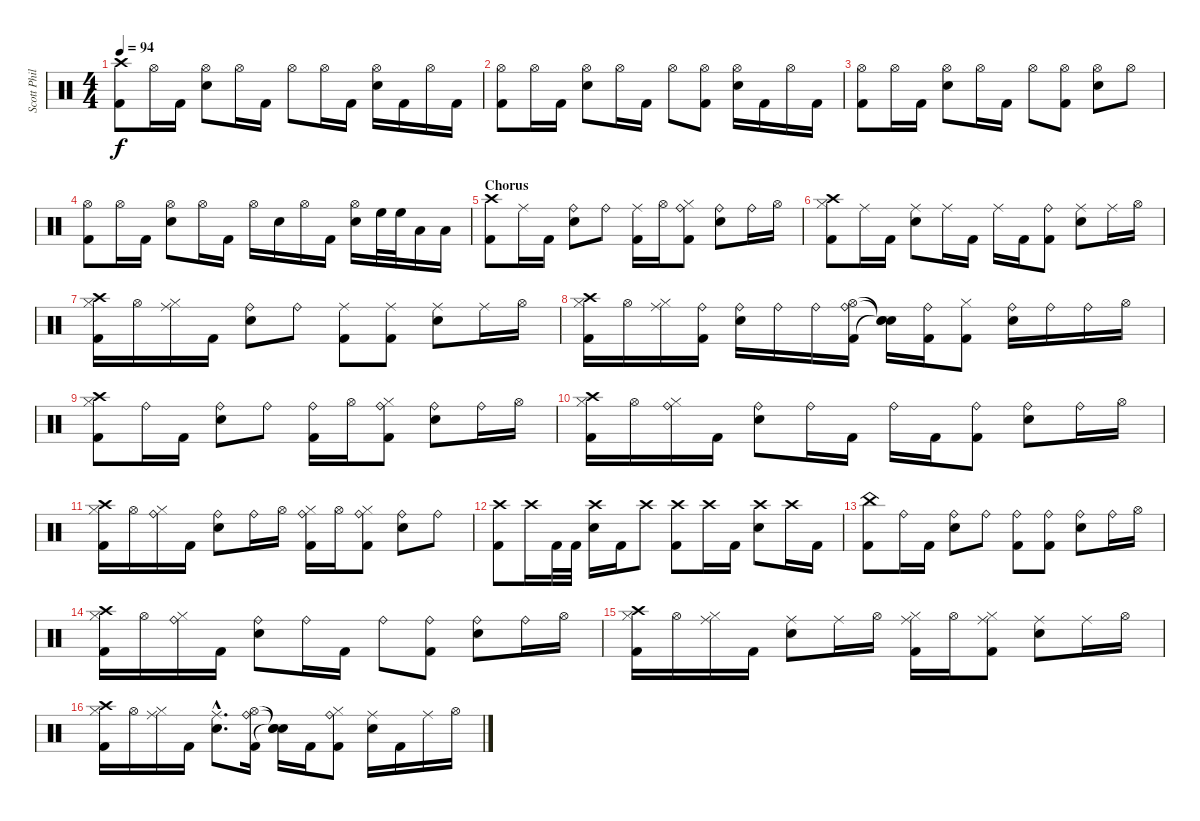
\track ("Scott Phillips" "Scott Phil") {instrument percussion}
\staff {score}
\articulation defaults
\ts (4 4)
\tempo 94
\clef neutral
\ks c
("Crash high (hit)" "Kick (hit) 2").8{dy f} "Hi-Hat (open)".16 "Kick (hit) 2".16 ("Hi-Hat (open)" "Electric Snare (hit)").8 "Hi-Hat (open)".16 "Kick (hit) 2".16 "Hi-Hat (open)".8 "Hi-Hat (open)".16 "Kick (hit) 2".16 ("Hi-Hat (open)" "Electric Snare (hit)").16 "Kick (hit) 2".16 "Hi-Hat (open)".16 "Kick (hit) 2".16 |
("Hi-Hat (open)" "Kick (hit) 2").8 "Hi-Hat (open)".16 "Kick (hit) 2".16 ("Hi-Hat (open)" "Electric Snare (hit)").8 "Hi-Hat (open)".16 "Kick (hit) 2".16 "Hi-Hat (open)".8 ("Hi-Hat (open)" "Kick (hit) 2").8 ("Hi-Hat (open)" "Electric Snare (hit)").16 "Kick (hit) 2".16 "Hi-Hat (open)".16 "Kick (hit) 2".16 |
("Hi-Hat (open)" "Kick (hit) 2").8 "Hi-Hat (open)".16 "Kick (hit) 2".16 ("Hi-Hat (open)" "Electric Snare (hit)").8 "Hi-Hat (open)".16 "Kick (hit) 2".16 "Hi-Hat (open)".8 ("Hi-Hat (open)" "Kick (hit) 2").8 ("Hi-Hat (open)" "Electric Snare (hit)").8 "Hi-Hat (open)".8 |
("Hi-Hat (open)" "Kick (hit) 2").8 "Hi-Hat (open)".16 "Kick (hit) 2".16 ("Hi-Hat (open)" "Electric Snare (hit)").8 "Hi-Hat (open)".16 "Kick (hit) 2".16 "Hi-Hat (open)".16 "Electric Snare (hit)".16 "Hi-Hat (open)".16 "Kick (hit) 2".16 ("Hi-Hat (open)" "Electric Snare (hit)").16 "High Floor Tom (hit)".32 "High Floor Tom (hit)".32 "Low Tom (hit)".16 "Low Floor Tom (hit)".16 |
\section ("" "Chorus")
("Crash high (hit)" "Kick (hit) 2").8 "Ride (middle)".16 "Kick (hit) 2".16 ("Ride (bell)" "Electric Snare (hit)").8 "Ride (bell)".8 ("Ride (middle)" "Kick (hit) 2").16 "Hi-Hat (open)".16 ("Ride (bell)" "Hi-Hat (closed)" "Kick (hit) 2").8 ("Ride (bell)" "Electric Snare (hit)").8 "Ride (bell)".16 "Hi-Hat (open)".16 |
("Crash high (hit)" "Hi-Hat (closed)" "Kick (hit) 2").8 "Ride (middle)".16 "Kick (hit) 2".16 ("Ride (middle)" "Electric Snare (hit)").8 "Ride (middle)".16 "Kick (hit) 2".16 "Ride (middle)".16 "Kick (hit) 2".16 ("Ride (bell)" "Kick (hit) 2").8 ("Ride (middle)" "Electric Snare (hit)").8 "Ride (middle)".16 "Hi-Hat (open)".16 |
("Crash high (hit)" "Hi-Hat (closed)" "Kick (hit) 2").16 "Hi-Hat (open)".16 ("Ride (middle)" "Hi-Hat (closed)").16 "Kick (hit) 2".16 ("Ride (bell)" "Electric Snare (hit)").8 "Ride (bell)".8 ("Ride (middle)" "Kick (hit) 2").8 ("Ride (middle)" "Kick (hit) 2").8 ("Ride (middle)" "Electric Snare (hit)").8 "Ride (middle)".16 "Hi-Hat (open)".16 |
("Crash high (hit)" "Hi-Hat (closed)" "Kick (hit) 2").16 "Hi-Hat (open)".16 ("Ride (middle)" "Hi-Hat (closed)").16 ("Ride (bell)" "Kick (hit) 2").16 ("Ride (bell)" "Electric Snare (hit)").16 "Ride (bell)".16 "Ride (bell)".16 ("Ride (bell)" "Hi-Hat (open)" "Kick (hit) 2").16 ("Snare (hit)"{t} "Snare (hit)"{t} "Snare (hit)"{t}).16 ("Ride (bell)" "Kick (hit) 2").16 ("Hi-Hat (closed)" "Kick (hit) 2").8 ("Ride (bell)" "Electric Snare (hit)").16 "Ride (bell)".16 "Ride (bell)".16 "Hi-Hat (open)".16 |
("Crash high (hit)" "Hi-Hat (closed)" "Kick (hit) 2").8 "Ride (bell)".16 "Kick (hit) 2".16 ("Ride (bell)" "Electric Snare (hit)").8 "Ride (bell)".8 ("Ride (bell)" "Kick (hit) 2").16 "Hi-Hat (open)".16 ("Ride (bell)" "Hi-Hat (closed)" "Kick (hit) 2").8 ("Ride (bell)" "Electric Snare (hit)").8 "Ride (bell)".16 "Hi-Hat (open)".16 |
("Crash high (hit)" "Hi-Hat (closed)" "Kick (hit) 2").16 "Hi-Hat (open)".16 ("Ride (bell)" "Hi-Hat (closed)").16 "Kick (hit) 2".16 ("Ride (bell)" "Electric Snare (hit)").8 "Ride (bell)".16 "Kick (hit) 2".16 "Ride (bell)".16 "Kick (hit) 2".16 ("Ride (bell)" "Kick (hit) 2").8 ("Ride (bell)" "Electric Snare (hit)").8 "Ride (bell)".16 "Hi-Hat (open)".16 |
("Crash high (hit)" "Hi-Hat (closed)" "Kick (hit) 2").16 "Hi-Hat (open)".16 ("Ride (bell)" "Hi-Hat (closed)").16 "Kick (hit) 2".16 ("Ride (bell)" "Electric Snare (hit)").8 "Ride (bell)".16 "Hi-Hat (open)".16 ("Ride (bell)" "Hi-Hat (closed)" "Kick (hit) 2").16 "Hi-Hat (open)".16 ("Ride (bell)" "Hi-Hat (closed)" "Kick (hit) 2").8 ("Ride (bell)" "Electric Snare (hit)").8 "Ride (bell)".8 |
("Crash high (hit)" "Kick (hit) 2").8 "Crash high (hit)".16 "Kick (hit) 2".32 "Kick (hit) 2".32 ("Crash high (hit)" "Electric Snare (hit)").16 "Kick (hit) 2".16 "Crash high (hit)".8 ("Crash high (hit)" "Kick (hit) 2").8 "Crash high (hit)".16 "Kick (hit) 2".16 ("Crash high (hit)" "Electric Snare (hit)").8 "Crash high (hit)".16 "Kick (hit) 2".16 |
("China (hit)" "Kick (hit) 2").8 "Ride (bell)".16 "Kick (hit) 2".16 ("Ride (bell)" "Electric Snare (hit)").8 "Ride (bell)".8 ("Ride (bell)" "Kick (hit) 2").8 ("Ride (bell)" "Kick (hit) 2").8 ("Ride (bell)" "Electric Snare (hit)").8 "Ride (bell)".16 "Hi-Hat (open)".16 |
("Crash high (hit)" "Hi-Hat (closed)" "Kick (hit) 2").16 "Hi-Hat (open)".16 ("Ride (bell)" "Hi-Hat (closed)").16 "Kick (hit) 2".16 ("Ride (bell)" "Electric Snare (hit)").8 "Ride (bell)".16 "Kick (hit) 2".16 "Ride (bell)".8 ("Ride (bell)" "Kick (hit) 2").8 ("Ride (bell)" "Electric Snare (hit)").8 "Ride (bell)".16 "Hi-Hat (open)".16 |
("Crash high (hit)" "Hi-Hat (closed)" "Kick (hit) 2").16 "Hi-Hat (open)".16 ("Ride (middle)" "Hi-Hat (closed)").16 "Kick (hit) 2".16 ("Ride (middle)" "Electric Snare (hit)").8 "Ride (middle)".16 "Hi-Hat (open)".16 ("Ride (middle)" "Hi-Hat (closed)" "Kick (hit) 2").16 "Hi-Hat (open)".16 ("Ride (middle)" "Hi-Hat (closed)" "Kick (hit) 2").8 ("Ride (middle)" "Electric Snare (hit)").8 "Ride (middle)".16 "Hi-Hat (open)".16 |
("Crash high (hit)" "Hi-Hat (closed)" "Kick (hit) 2").16 "Hi-Hat (open)".16 ("Ride (middle)" "Hi-Hat (closed)").16 "Kick (hit) 2".16 ("Ride (middle)"{hac} "Electric Snare (hit)"{hac}).8{d} ("Ride (bell)" "Hi-Hat (open)" "Kick (hit) 2").16 ("Snare (hit)"{t} "Snare (hit)"{t} "Snare (hit)"{t}).16 "Kick (hit) 2".16 ("Ride (bell)" "Hi-Hat (closed)" "Kick (hit) 2").8 ("Ride (middle)" "Electric Snare (hit)").16 "Kick (hit) 2".16 "Ride (middle)".16 "Hi-Hat (open)".16
